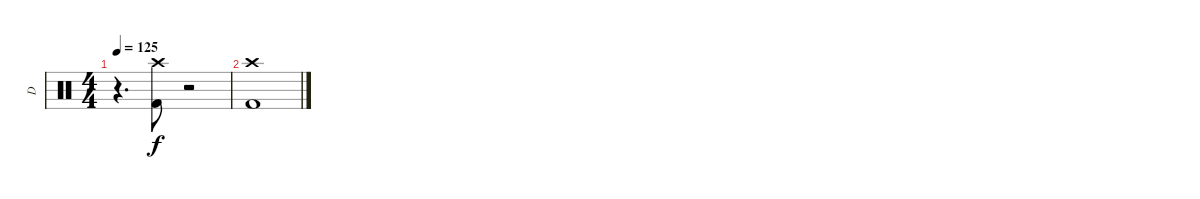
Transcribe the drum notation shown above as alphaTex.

\track ("D" "D") {instrument percussion}
\staff {score}
\articulation defaults
\ts (4 4)
\tempo 125
\clef neutral
\ks c
r.4{d dy f} ("Crash high (hit)" "Kick (hit) 2").8 r.2 |
("Crash high (hit)" "Kick (hit) 2").1
